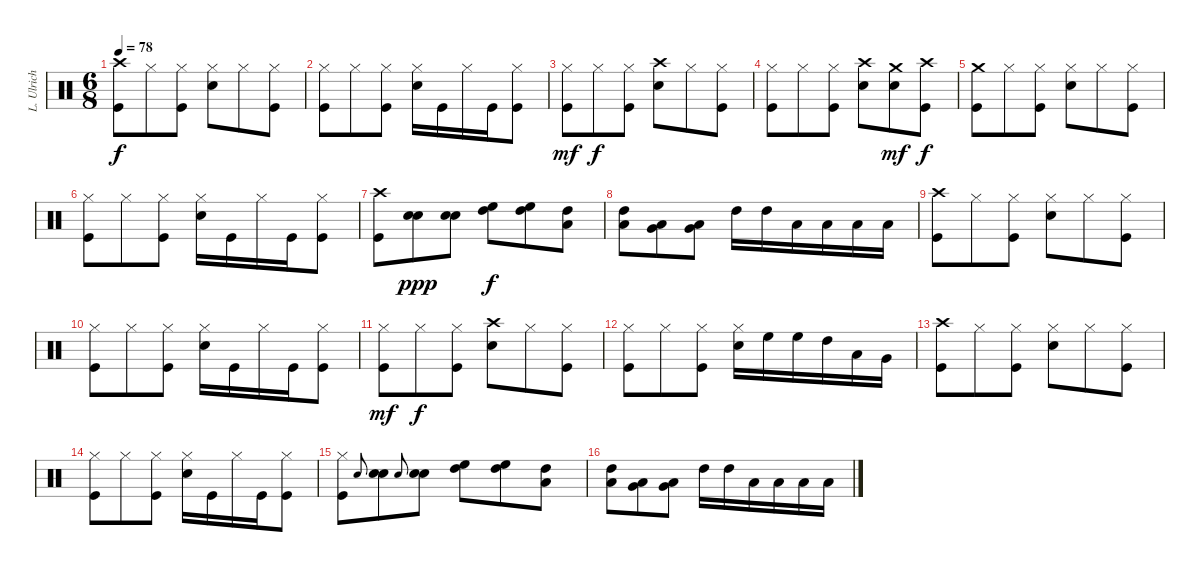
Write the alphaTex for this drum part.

\track ("L. Ulrich" "L. Ulrich") {instrument percussion}
\staff {score}
\articulation defaults
\ts (6 8)
\tempo 78
\clef neutral
\ks c
("Crash high (hit)" "Kick (hit)").8{dy f} "Hi-Hat (closed)".8 ("Hi-Hat (closed)" "Kick (hit)").8 ("Hi-Hat (closed)" "Snare (hit) 2").8 "Hi-Hat (closed)".8 ("Hi-Hat (closed)" "Kick (hit)").8 |
("Hi-Hat (closed)" "Kick (hit)").8 "Hi-Hat (closed)".8 ("Hi-Hat (closed)" "Kick (hit)").8 ("Hi-Hat (closed)" "Snare (hit) 2").16 "Kick (hit)".16 "Hi-Hat (closed)".16 "Kick (hit)".16 ("Hi-Hat (closed)" "Kick (hit)").8 |
("Hi-Hat (closed)" "Kick (hit)").8{dy mf} "Hi-Hat (closed)".8{dy f} ("Hi-Hat (closed)" "Kick (hit)").8 ("Crash high (hit)" "Snare (hit) 2").8 "Hi-Hat (closed)".8 ("Hi-Hat (closed)" "Kick (hit)").8 |
("Hi-Hat (closed)" "Kick (hit)").8 "Hi-Hat (closed)".8 ("Hi-Hat (closed)" "Kick (hit)").8 ("Crash high (hit)" "Snare (hit) 2").8 ("Crash medium (hit)" "Snare (hit) 2").8{dy mf} ("Crash high (hit)" "Kick (hit)").8{dy f} |
("Crash medium (hit)" "Kick (hit)").8 "Hi-Hat (closed)".8 ("Hi-Hat (closed)" "Kick (hit)").8 ("Hi-Hat (closed)" "Snare (hit) 2").8 "Hi-Hat (closed)".8 ("Hi-Hat (closed)" "Kick (hit)").8 |
("Hi-Hat (closed)" "Kick (hit)").8 "Hi-Hat (closed)".8 ("Hi-Hat (closed)" "Kick (hit)").8 ("Hi-Hat (closed)" "Snare (hit) 2").16 "Kick (hit)".16 "Hi-Hat (closed)".16 "Kick (hit)".16 ("Hi-Hat (closed)" "Kick (hit)").8 |
("Crash high (hit)" "Kick (hit)").8 ("Snare (hit) 2" "Snare (hit) 2").8{dy ppp} ("Snare (hit) 2" "Snare (hit) 2").8 ("High Floor Tom (hit)" "High Tom (hit)").8{dy f} ("High Floor Tom (hit)" "High Tom (hit)").8 ("High Tom (hit)" "Low Tom (hit)").8 |
("High Tom (hit)" "Low Tom (hit)").8 ("Low Tom (hit)" "Very Low Tom (hit)").8 ("Low Tom (hit)" "Very Low Tom (hit)").8 "High Tom (hit)".16 "High Tom (hit)".16 "Low Tom (hit)".16 "Low Tom (hit)".16 "Low Floor Tom (hit)".16 "Low Floor Tom (hit)".16 |
("Crash high (hit)" "Kick (hit)").8 "Hi-Hat (closed)".8 ("Hi-Hat (closed)" "Kick (hit)").8 ("Hi-Hat (closed)" "Snare (hit) 2").8 "Hi-Hat (closed)".8 ("Hi-Hat (closed)" "Kick (hit)").8 |
("Hi-Hat (closed)" "Kick (hit)").8 "Hi-Hat (closed)".8 ("Hi-Hat (closed)" "Kick (hit)").8 ("Hi-Hat (closed)" "Snare (hit) 2").16 "Kick (hit)".16 "Hi-Hat (closed)".16 "Kick (hit)".16 ("Hi-Hat (closed)" "Kick (hit)").8 |
("Hi-Hat (closed)" "Kick (hit)").8{dy mf} "Hi-Hat (closed)".8{dy f} ("Hi-Hat (closed)" "Kick (hit)").8 ("Crash high (hit)" "Snare (hit) 2").8 "Hi-Hat (closed)".8 ("Hi-Hat (closed)" "Kick (hit)").8 |
("Hi-Hat (closed)" "Kick (hit)").8 "Hi-Hat (closed)".8 ("Hi-Hat (closed)" "Kick (hit)").8 ("Hi-Hat (closed)" "Snare (hit) 2").16 "High Floor Tom (hit)".16 "High Floor Tom (hit)".16 "High Tom (hit)".16 "Low Tom (hit)".16 "Very Low Tom (hit)".16 |
("Crash high (hit)" "Kick (hit)").8 "Hi-Hat (closed)".8 ("Hi-Hat (closed)" "Kick (hit)").8 ("Hi-Hat (closed)" "Snare (hit) 2").8 "Hi-Hat (closed)".8 ("Hi-Hat (closed)" "Kick (hit)").8 |
("Hi-Hat (closed)" "Kick (hit)").8 "Hi-Hat (closed)".8 ("Hi-Hat (closed)" "Kick (hit)").8 ("Hi-Hat (closed)" "Snare (hit) 2").16 "Kick (hit)".16 "Hi-Hat (closed)".16 "Kick (hit)".16 ("Hi-Hat (closed)" "Kick (hit)").8 |
("Hi-Hat (closed)" "Kick (hit)").8 "Snare (hit) 2".8{gr onbeat} ("Snare (hit) 2" "Snare (hit) 2").8 "Snare (hit) 2".8{gr onbeat} ("Snare (hit) 2" "Snare (hit) 2").8 ("High Floor Tom (hit)" "High Tom (hit)").8 ("High Floor Tom (hit)" "High Tom (hit)").8 ("High Tom (hit)" "Low Tom (hit)").8 |
("High Tom (hit)" "Low Tom (hit)").8 ("Low Tom (hit)" "Very Low Tom (hit)").8 ("Low Tom (hit)" "Very Low Tom (hit)").8 "High Tom (hit)".16 "High Tom (hit)".16 "Low Tom (hit)".16 "Low Tom (hit)".16 "Low Floor Tom (hit)".16 "Low Floor Tom (hit)".16
